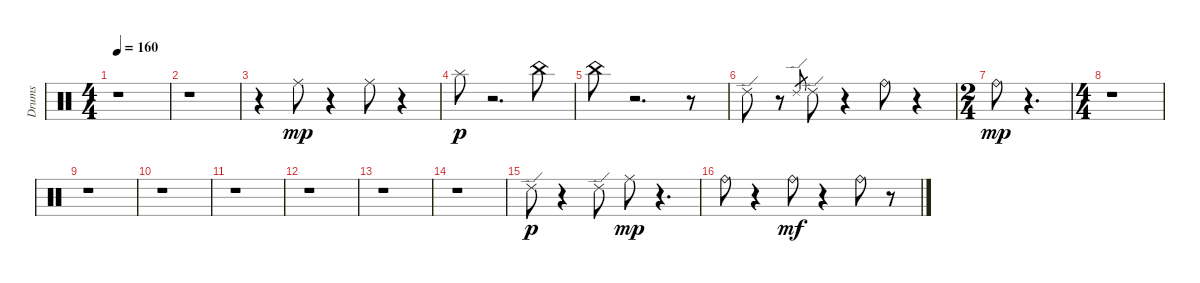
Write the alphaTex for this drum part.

\track ("Drums" "Drums") {instrument percussion}
\staff {score}
\articulation defaults
\ts (4 4)
\tempo 160
\clef neutral
\ks c
r.1{dy ff} |
r.1 |
r.4 "Ride (middle)".8{dy mp} r.4 "Ride (middle)".8 r.4 |
"Splash (hit)".8{dy p} r.2{d} "China (hit)".8 |
"China (hit)".8 r.2{d} r.8 |
"Ride (edge) 2".8 r.8 "Ride (edge) 2".8{gr} "Ride (edge) 2".8 r.4 "Ride (bell)".8 r.4 |
\ts (2 4)
"Ride (bell)".8{dy mp} r.4{d} |
\ts (4 4)
r.1 |
r.1 |
r.1 |
r.1 |
r.1 |
r.1 |
r.1 |
"Ride (edge) 2".8{dy p} r.4 "Ride (edge) 2".8 "Ride (middle)".8{dy mp} r.4{d} |
"Ride (bell)".8 r.4 "Ride (bell)".8{dy mf} r.4 "Ride (bell)".8 r.8
